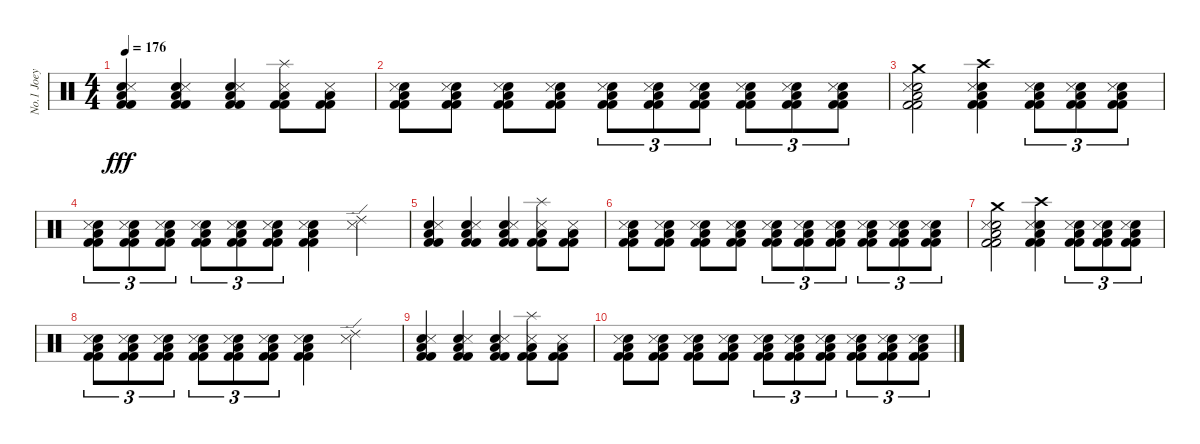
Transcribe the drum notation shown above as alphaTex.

\track ("No.1 Joey" "No.1 Joey") {instrument percussion}
\staff {score}
\articulation defaults
\ts (4 4)
\tempo 176
\clef neutral
\ks c
("Electric Snare (hit)" "Snare (side stick) 3" "Low Floor Tom (hit)" "Kick (hit) 2" "Kick (hit) 2").4{dy fff} ("Electric Snare (hit)" "Snare (side stick) 3" "Low Floor Tom (hit)" "Kick (hit) 2" "Kick (hit) 2").4 ("Electric Snare (hit)" "Snare (side stick) 3" "Low Floor Tom (hit)" "Kick (hit) 2" "Kick (hit) 2").4 ("Splash (hit)" "Snare (side stick) 3" "Low Floor Tom (hit)" "Kick (hit) 2" "Kick (hit) 2").8 ("Snare (side stick) 3" "Low Floor Tom (hit)" "Kick (hit) 2" "Kick (hit) 2").8 |
("Snare (hit) 2" "Snare (side stick) 3" "Low Floor Tom (hit)" "Kick (hit) 2" "Kick (hit) 2").8 ("Snare (hit) 2" "Snare (side stick) 3" "Low Floor Tom (hit)" "Kick (hit) 2" "Kick (hit) 2").8 ("Snare (hit) 2" "Snare (side stick) 3" "Low Floor Tom (hit)" "Kick (hit) 2" "Kick (hit) 2").8 ("Snare (hit) 2" "Snare (side stick) 3" "Low Floor Tom (hit)" "Kick (hit) 2" "Kick (hit) 2").8 ("Snare (hit) 2" "Snare (side stick) 3" "Low Floor Tom (hit)" "Kick (hit) 2" "Kick (hit) 2").8{tu (3 2)} ("Snare (hit) 2" "Snare (side stick) 3" "Low Floor Tom (hit)" "Kick (hit) 2" "Kick (hit) 2").8{tu (3 2)} ("Snare (hit) 2" "Snare (side stick) 3" "Low Floor Tom (hit)" "Kick (hit) 2" "Kick (hit) 2").8{tu (3 2)} ("Snare (hit) 2" "Snare (side stick) 3" "Low Floor Tom (hit)" "Kick (hit) 2" "Kick (hit) 2").8{tu (3 2)} ("Snare (hit) 2" "Snare (side stick) 3" "Low Floor Tom (hit)" "Kick (hit) 2" "Kick (hit) 2").8{tu (3 2)} ("Snare (hit) 2" "Snare (side stick) 3" "Low Floor Tom (hit)" "Kick (hit) 2" "Kick (hit) 2").8{tu (3 2)} |
("Electric Snare (hit)" "Crash medium (hit)" "Snare (side stick) 3" "Low Floor Tom (hit)" "Kick (hit) 2" "Kick (hit) 2").2 ("Electric Snare (hit)" "Crash high (hit)" "Snare (side stick) 3" "Low Floor Tom (hit)" "Kick (hit) 2" "Kick (hit) 2").4 ("Snare (hit) 2" "Snare (side stick) 3" "Low Floor Tom (hit)" "Kick (hit) 2" "Kick (hit) 2").8{tu (3 2)} ("Snare (hit) 2" "Snare (side stick) 3" "Low Floor Tom (hit)" "Kick (hit) 2" "Kick (hit) 2").8{tu (3 2)} ("Snare (hit) 2" "Snare (side stick) 3" "Low Floor Tom (hit)" "Kick (hit) 2" "Kick (hit) 2").8{tu (3 2)} |
("Snare (hit) 2" "Snare (side stick) 3" "Low Floor Tom (hit)" "Kick (hit) 2" "Kick (hit) 2").8{tu (3 2)} ("Snare (hit) 2" "Snare (side stick) 3" "Low Floor Tom (hit)" "Kick (hit) 2" "Kick (hit) 2").8{tu (3 2)} ("Snare (hit) 2" "Snare (side stick) 3" "Low Floor Tom (hit)" "Kick (hit) 2" "Kick (hit) 2").8{tu (3 2)} ("Snare (hit) 2" "Snare (side stick) 3" "Low Floor Tom (hit)" "Kick (hit) 2" "Kick (hit) 2").8{tu (3 2)} ("Snare (hit) 2" "Snare (side stick) 3" "Low Floor Tom (hit)" "Kick (hit) 2" "Kick (hit) 2").8{tu (3 2)} ("Snare (hit) 2" "Snare (side stick) 3" "Low Floor Tom (hit)" "Kick (hit) 2" "Kick (hit) 2").8{tu (3 2)} ("Snare (hit) 2" "Snare (side stick) 3" "Low Floor Tom (hit)" "Kick (hit) 2" "Kick (hit) 2").4 ("Ride (edge) 2" "Snare (side stick) 3").4 |
("Electric Snare (hit)" "Snare (side stick) 3" "Low Floor Tom (hit)" "Kick (hit) 2" "Kick (hit) 2").4 ("Electric Snare (hit)" "Snare (side stick) 3" "Low Floor Tom (hit)" "Kick (hit) 2" "Kick (hit) 2").4 ("Electric Snare (hit)" "Snare (side stick) 3" "Low Floor Tom (hit)" "Kick (hit) 2" "Kick (hit) 2").4 ("Splash (hit)" "Snare (side stick) 3" "Low Floor Tom (hit)" "Kick (hit) 2" "Kick (hit) 2").8 ("Snare (side stick) 3" "Low Floor Tom (hit)" "Kick (hit) 2" "Kick (hit) 2").8 |
("Snare (hit) 2" "Snare (side stick) 3" "Low Floor Tom (hit)" "Kick (hit) 2" "Kick (hit) 2").8 ("Snare (hit) 2" "Snare (side stick) 3" "Low Floor Tom (hit)" "Kick (hit) 2" "Kick (hit) 2").8 ("Snare (hit) 2" "Snare (side stick) 3" "Low Floor Tom (hit)" "Kick (hit) 2" "Kick (hit) 2").8 ("Snare (hit) 2" "Snare (side stick) 3" "Low Floor Tom (hit)" "Kick (hit) 2" "Kick (hit) 2").8 ("Snare (hit) 2" "Snare (side stick) 3" "Low Floor Tom (hit)" "Kick (hit) 2" "Kick (hit) 2").8{tu (3 2)} ("Snare (hit) 2" "Snare (side stick) 3" "Low Floor Tom (hit)" "Kick (hit) 2" "Kick (hit) 2").8{tu (3 2)} ("Snare (hit) 2" "Snare (side stick) 3" "Low Floor Tom (hit)" "Kick (hit) 2" "Kick (hit) 2").8{tu (3 2)} ("Snare (hit) 2" "Snare (side stick) 3" "Low Floor Tom (hit)" "Kick (hit) 2" "Kick (hit) 2").8{tu (3 2)} ("Snare (hit) 2" "Snare (side stick) 3" "Low Floor Tom (hit)" "Kick (hit) 2" "Kick (hit) 2").8{tu (3 2)} ("Snare (hit) 2" "Snare (side stick) 3" "Low Floor Tom (hit)" "Kick (hit) 2" "Kick (hit) 2").8{tu (3 2)} |
("Electric Snare (hit)" "Crash medium (hit)" "Snare (side stick) 3" "Low Floor Tom (hit)" "Kick (hit) 2" "Kick (hit) 2").2 ("Electric Snare (hit)" "Crash high (hit)" "Snare (side stick) 3" "Low Floor Tom (hit)" "Kick (hit) 2" "Kick (hit) 2").4 ("Snare (hit) 2" "Snare (side stick) 3" "Low Floor Tom (hit)" "Kick (hit) 2" "Kick (hit) 2").8{tu (3 2)} ("Snare (hit) 2" "Snare (side stick) 3" "Low Floor Tom (hit)" "Kick (hit) 2" "Kick (hit) 2").8{tu (3 2)} ("Snare (hit) 2" "Snare (side stick) 3" "Low Floor Tom (hit)" "Kick (hit) 2" "Kick (hit) 2").8{tu (3 2)} |
("Snare (hit) 2" "Snare (side stick) 3" "Low Floor Tom (hit)" "Kick (hit) 2" "Kick (hit) 2").8{tu (3 2)} ("Snare (hit) 2" "Snare (side stick) 3" "Low Floor Tom (hit)" "Kick (hit) 2" "Kick (hit) 2").8{tu (3 2)} ("Snare (hit) 2" "Snare (side stick) 3" "Low Floor Tom (hit)" "Kick (hit) 2" "Kick (hit) 2").8{tu (3 2)} ("Snare (hit) 2" "Snare (side stick) 3" "Low Floor Tom (hit)" "Kick (hit) 2" "Kick (hit) 2").8{tu (3 2)} ("Snare (hit) 2" "Snare (side stick) 3" "Low Floor Tom (hit)" "Kick (hit) 2" "Kick (hit) 2").8{tu (3 2)} ("Snare (hit) 2" "Snare (side stick) 3" "Low Floor Tom (hit)" "Kick (hit) 2" "Kick (hit) 2").8{tu (3 2)} ("Snare (hit) 2" "Snare (side stick) 3" "Low Floor Tom (hit)" "Kick (hit) 2" "Kick (hit) 2").4 ("Ride (edge) 2" "Snare (side stick) 3").4 |
("Electric Snare (hit)" "Snare (side stick) 3" "Low Floor Tom (hit)" "Kick (hit) 2" "Kick (hit) 2").4 ("Electric Snare (hit)" "Snare (side stick) 3" "Low Floor Tom (hit)" "Kick (hit) 2" "Kick (hit) 2").4 ("Electric Snare (hit)" "Snare (side stick) 3" "Low Floor Tom (hit)" "Kick (hit) 2" "Kick (hit) 2").4 ("Splash (hit)" "Snare (side stick) 3" "Low Floor Tom (hit)" "Kick (hit) 2" "Kick (hit) 2").8 ("Snare (side stick) 3" "Low Floor Tom (hit)" "Kick (hit) 2" "Kick (hit) 2").8 |
("Snare (hit) 2" "Snare (side stick) 3" "Low Floor Tom (hit)" "Kick (hit) 2" "Kick (hit) 2").8 ("Snare (hit) 2" "Snare (side stick) 3" "Low Floor Tom (hit)" "Kick (hit) 2" "Kick (hit) 2").8 ("Snare (hit) 2" "Snare (side stick) 3" "Low Floor Tom (hit)" "Kick (hit) 2" "Kick (hit) 2").8 ("Snare (hit) 2" "Snare (side stick) 3" "Low Floor Tom (hit)" "Kick (hit) 2" "Kick (hit) 2").8 ("Snare (hit) 2" "Snare (side stick) 3" "Low Floor Tom (hit)" "Kick (hit) 2" "Kick (hit) 2").8{tu (3 2)} ("Snare (hit) 2" "Snare (side stick) 3" "Low Floor Tom (hit)" "Kick (hit) 2" "Kick (hit) 2").8{tu (3 2)} ("Snare (hit) 2" "Snare (side stick) 3" "Low Floor Tom (hit)" "Kick (hit) 2" "Kick (hit) 2").8{tu (3 2)} ("Snare (hit) 2" "Snare (side stick) 3" "Low Floor Tom (hit)" "Kick (hit) 2" "Kick (hit) 2").8{tu (3 2)} ("Snare (hit) 2" "Snare (side stick) 3" "Low Floor Tom (hit)" "Kick (hit) 2" "Kick (hit) 2").8{tu (3 2)} ("Snare (hit) 2" "Snare (side stick) 3" "Low Floor Tom (hit)" "Kick (hit) 2" "Kick (hit) 2").8{tu (3 2)}
